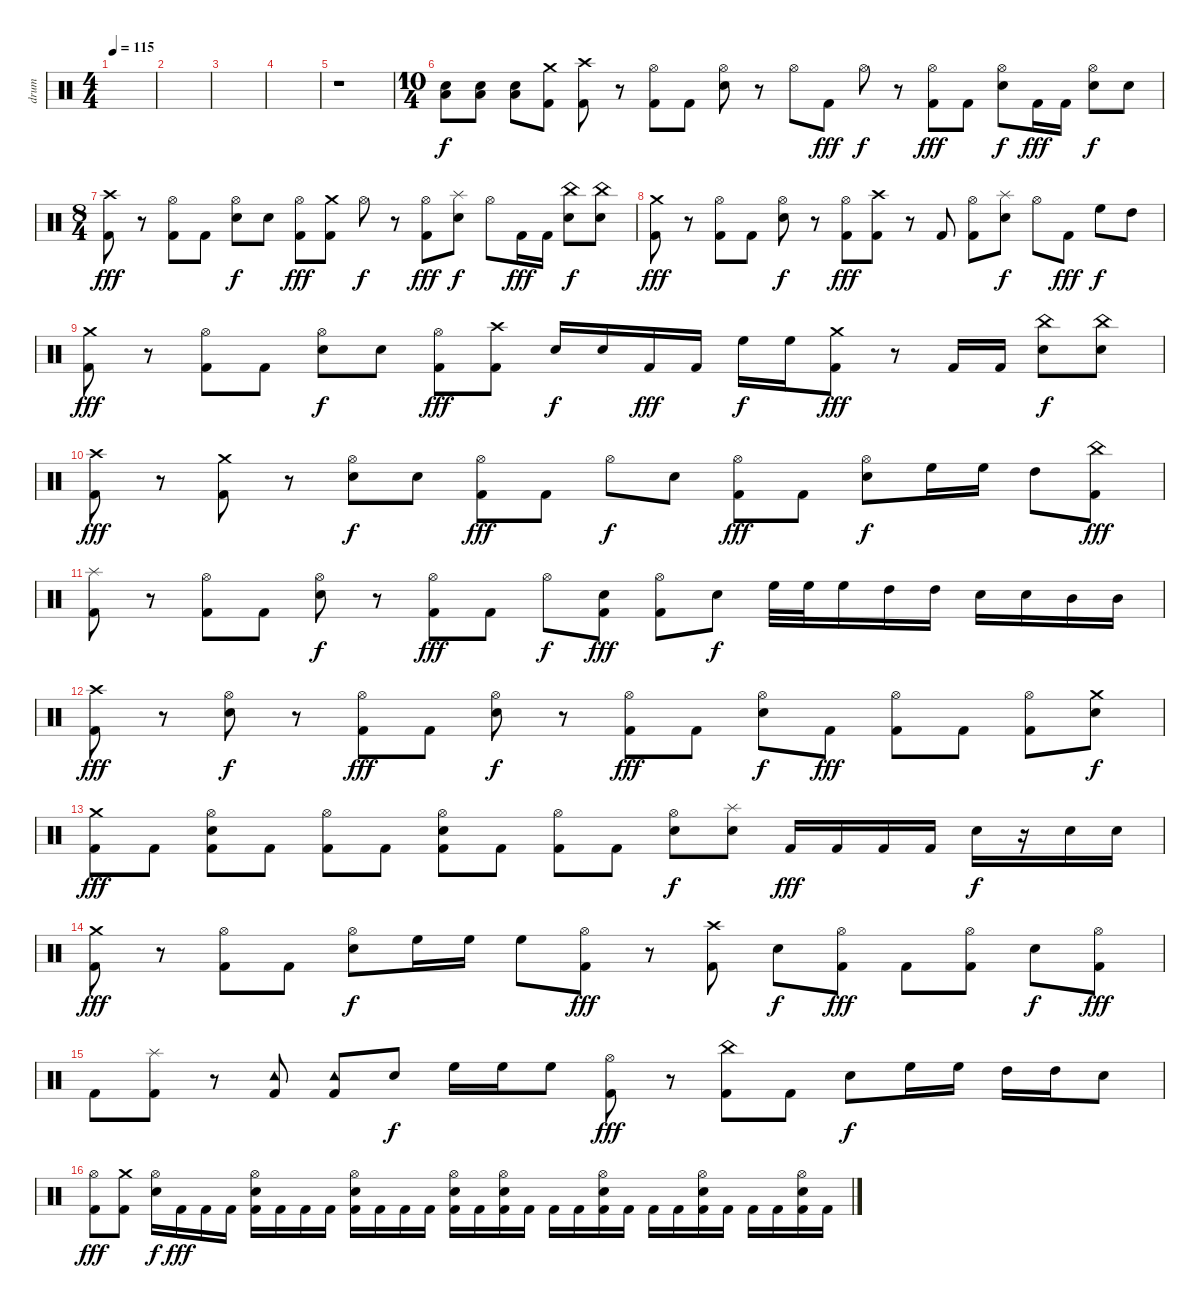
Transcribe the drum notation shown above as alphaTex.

\track ("drum" "drum") {instrument percussion}
\staff {score}
\articulation defaults
\ts (4 4)
\tempo 115
\clef neutral
\ks c
|
|
|
|
r.1 |
\ts (10 4)
("Electric Snare (hit)" "Low Floor Tom (hit)").8 ("Electric Snare (hit)" "Low Floor Tom (hit)").8 ("Electric Snare (hit)" "Low Floor Tom (hit)").8 ("Crash medium (hit)" "Kick (hit) 2").8 ("Crash high (hit)" "Kick (hit) 2").8 r.8 ("Hi-Hat (open)" "Kick (hit) 2").8 "Kick (hit) 2".8 ("Hi-Hat (open)" "Electric Snare (hit)").8{dy f} r.8 "Hi-Hat (open)".8 "Kick (hit) 2".8{dy fff} "Hi-Hat (open)".8{dy f} r.8 ("Hi-Hat (open)" "Kick (hit) 2").8{dy fff} "Kick (hit) 2".8 ("Hi-Hat (open)" "Electric Snare (hit)").8{dy f} "Kick (hit) 2".16{dy fff} "Kick (hit) 2".16 ("Hi-Hat (open)" "Electric Snare (hit)").8{dy f} "Electric Snare (hit)".8 |
\ts (8 4)
("Crash high (hit)" "Kick (hit) 2").8{dy fff} r.8 ("Hi-Hat (open)" "Kick (hit) 2").8 "Kick (hit) 2".8 ("Hi-Hat (open)" "Electric Snare (hit)").8{dy f} "Electric Snare (hit)".8 ("Hi-Hat (open)" "Kick (hit) 2").8{dy fff} ("Crash medium (hit)" "Kick (hit) 2").8 "Hi-Hat (open)".8{dy f} r.8 ("Hi-Hat (open)" "Kick (hit) 2").8{dy fff} ("Splash (hit)" "Electric Snare (hit)").8{dy f} "Hi-Hat (open)".8 "Kick (hit) 2".16{dy fff} "Kick (hit) 2".16 ("China (hit)" "Electric Snare (hit)").8{dy f} ("China (hit)" "Electric Snare (hit)").8 |
("Crash medium (hit)" "Kick (hit) 2").8{dy fff} r.8 ("Hi-Hat (open)" "Kick (hit) 2").8 "Kick (hit) 2".8 ("Hi-Hat (open)" "Electric Snare (hit)").8{dy f} r.8 ("Hi-Hat (open)" "Kick (hit) 2").8{dy fff} ("Crash high (hit)" "Kick (hit) 2").8 r.8 "Kick (hit) 2".8 ("Hi-Hat (open)" "Kick (hit) 2").8 ("Splash (hit)" "Electric Snare (hit)").8{dy f} "Hi-Hat (open)".8 "Kick (hit) 2".8{dy fff} "High Floor Tom (hit)".8{dy f} "High Tom (hit)".8 |
("Crash medium (hit)" "Kick (hit) 2").8{dy fff} r.8 ("Hi-Hat (open)" "Kick (hit) 2").8 "Kick (hit) 2".8 ("Hi-Hat (open)" "Electric Snare (hit)").8{dy f} "Electric Snare (hit)".8 ("Hi-Hat (open)" "Kick (hit) 2").8{dy fff} ("Crash high (hit)" "Kick (hit) 2").8 "Electric Snare (hit)".16{dy f} "Electric Snare (hit)".16 "Kick (hit) 2".16{dy fff} "Kick (hit) 2".16 "High Floor Tom (hit)".16{dy f} "High Floor Tom (hit)".16 ("Crash medium (hit)" "Kick (hit) 2").8{dy fff} r.8 "Kick (hit) 2".16 "Kick (hit) 2".16 ("China (hit)" "Electric Snare (hit)").8{dy f} ("China (hit)" "Electric Snare (hit)").8 |
("Crash high (hit)" "Kick (hit) 2").8{dy fff} r.8 ("Crash medium (hit)" "Kick (hit) 2").8 r.8 ("Hi-Hat (open)" "Electric Snare (hit)").8{dy f} "Electric Snare (hit)".8 ("Hi-Hat (open)" "Kick (hit) 2").8{dy fff} "Kick (hit) 2".8 "Hi-Hat (open)".8{dy f} "Electric Snare (hit)".8 ("Hi-Hat (open)" "Kick (hit) 2").8{dy fff} "Kick (hit) 2".8 ("Hi-Hat (open)" "Electric Snare (hit)").8{dy f} "High Floor Tom (hit)".16 "High Floor Tom (hit)".16 "High Tom (hit)".8 ("China (hit)" "Kick (hit) 2").8{dy fff} |
("Splash (hit)" "Kick (hit) 2").8 r.8 ("Hi-Hat (open)" "Kick (hit) 2").8 "Kick (hit) 2".8 ("Hi-Hat (open)" "Electric Snare (hit)").8{dy f} r.8 ("Hi-Hat (open)" "Kick (hit) 2").8{dy fff} "Kick (hit) 2".8 "Hi-Hat (open)".8{dy f} ("Electric Snare (hit)" "Kick (hit) 2").8{dy fff} ("Hi-Hat (open)" "Kick (hit) 2").8 "Electric Snare (hit)".8{dy f} "High Floor Tom (hit)".32 "High Floor Tom (hit)".32 "High Floor Tom (hit)".16 "High Tom (hit)".16 "High Tom (hit)".16 "Electric Snare (hit)".16 "Electric Snare (hit)".16 "Mid Tom (hit)".16 "Mid Tom (hit)".16 |
("Crash high (hit)" "Kick (hit) 2").8{dy fff} r.8 ("Hi-Hat (open)" "Electric Snare (hit)").8{dy f} r.8 ("Hi-Hat (open)" "Kick (hit) 2").8{dy fff} "Kick (hit) 2".8 ("Hi-Hat (open)" "Electric Snare (hit)").8{dy f} r.8 ("Hi-Hat (open)" "Kick (hit) 2").8{dy fff} "Kick (hit) 2".8 ("Hi-Hat (open)" "Electric Snare (hit)").8{dy f} "Kick (hit) 2".8{dy fff} ("Hi-Hat (open)" "Kick (hit) 2").8 "Kick (hit) 2".8 ("Hi-Hat (open)" "Kick (hit) 2").8 ("Crash medium (hit)" "Electric Snare (hit)").8{dy f} |
("Crash medium (hit)" "Kick (hit) 2").8{dy fff} "Kick (hit) 2".8 ("Hi-Hat (open)" "Electric Snare (hit)" "Kick (hit) 2").8 "Kick (hit) 2".8 ("Hi-Hat (open)" "Kick (hit) 2").8 "Kick (hit) 2".8 ("Hi-Hat (open)" "Electric Snare (hit)" "Kick (hit) 2").8 "Kick (hit) 2".8 ("Hi-Hat (open)" "Kick (hit) 2").8 "Kick (hit) 2".8 ("Hi-Hat (open)" "Electric Snare (hit)").8{dy f} ("Splash (hit)" "Electric Snare (hit)").8 "Kick (hit) 2".16{dy fff} "Kick (hit) 2".16 "Kick (hit) 2".16 "Kick (hit) 2".16 "Electric Snare (hit)".16{dy f} r.16 "Electric Snare (hit)".16 "Electric Snare (hit)".16 |
("Crash medium (hit)" "Kick (hit) 2").8{dy fff} r.8 ("Hi-Hat (open)" "Kick (hit) 2").8 "Kick (hit) 2".8 ("Hi-Hat (open)" "Electric Snare (hit)").8{dy f} "High Floor Tom (hit)".16 "High Floor Tom (hit)".16 "High Floor Tom (hit)".8 ("Hi-Hat (open)" "Kick (hit) 2").8{dy fff} r.8 ("Crash high (hit)" "Kick (hit) 2").8 "Electric Snare (hit)".8{dy f} ("Hi-Hat (open)" "Kick (hit) 2").8{dy fff} "Kick (hit) 2".8 ("Hi-Hat (open)" "Kick (hit) 2").8 "Electric Snare (hit)".8{dy f} ("Hi-Hat (open)" "Kick (hit) 2").8{dy fff} |
"Kick (hit) 2".8 ("Splash (hit)" "Kick (hit) 2").8 r.8 ("Tambourine (hit)" "Kick (hit) 2").8 ("Tambourine (hit)" "Kick (hit) 2").8 "Electric Snare (hit)".8{dy f} "High Floor Tom (hit)".16 "High Floor Tom (hit)".16 "High Floor Tom (hit)".8 ("Hi-Hat (open)" "Kick (hit) 2").8{dy fff} r.8 ("China (hit)" "Kick (hit) 2").8 "Kick (hit) 2".8 "Electric Snare (hit)".8{dy f} "High Floor Tom (hit)".16 "High Floor Tom (hit)".16 "High Tom (hit)".16 "High Tom (hit)".16 "Electric Snare (hit)".8 |
("Hi-Hat (open)" "Kick (hit) 2").8{dy fff} ("Crash medium (hit)" "Kick (hit) 2").8 ("Hi-Hat (open)" "Electric Snare (hit)").16{dy f} "Kick (hit) 2".16{dy fff} "Kick (hit) 2".16 "Kick (hit) 2".16 ("Hi-Hat (open)" "Electric Snare (hit)" "Kick (hit) 2").16 "Kick (hit) 2".16 "Kick (hit) 2".16 "Kick (hit) 2".16 ("Hi-Hat (open)" "Electric Snare (hit)" "Kick (hit) 2").16 "Kick (hit) 2".16 "Kick (hit) 2".16 "Kick (hit) 2".16 ("Hi-Hat (open)" "Electric Snare (hit)" "Kick (hit) 2").16 "Kick (hit) 2".16 ("Hi-Hat (open)" "Electric Snare (hit)" "Kick (hit) 2").16 "Kick (hit) 2".16 "Kick (hit) 2".16 "Kick (hit) 2".16 ("Hi-Hat (open)" "Electric Snare (hit)" "Kick (hit) 2").16 "Kick (hit) 2".16 "Kick (hit) 2".16 "Kick (hit) 2".16 ("Hi-Hat (open)" "Electric Snare (hit)" "Kick (hit) 2").16 "Kick (hit) 2".16 "Kick (hit) 2".16 "Kick (hit) 2".16 ("Hi-Hat (open)" "Electric Snare (hit)" "Kick (hit) 2").16 "Kick (hit) 2".16
